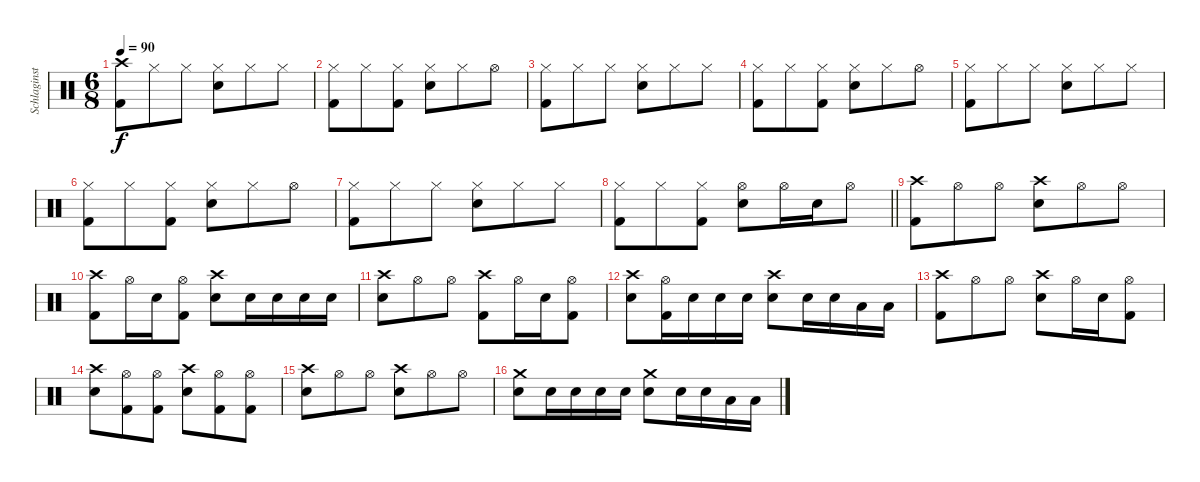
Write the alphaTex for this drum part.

\track ("Schlaginstrumente - Auswahl" "Schlaginst") {instrument percussion}
\staff {score}
\articulation defaults
\ts (6 8)
\tempo 90
\clef neutral
\ks c
("Crash high (hit)" "Kick (hit) 2").8{dy f} "Hi-Hat (closed)".8 "Hi-Hat (closed)".8 ("Hi-Hat (closed)" "Snare (hit) 2").8 "Hi-Hat (closed)".8 "Hi-Hat (closed)".8 |
("Hi-Hat (closed)" "Kick (hit) 2").8 "Hi-Hat (closed)".8 ("Hi-Hat (closed)" "Kick (hit) 2").8 ("Hi-Hat (closed)" "Snare (hit) 2").8 "Hi-Hat (closed)".8 "Hi-Hat (open)".8 |
("Hi-Hat (closed)" "Kick (hit) 2").8 "Hi-Hat (closed)".8 "Hi-Hat (closed)".8 ("Hi-Hat (closed)" "Snare (hit) 2").8 "Hi-Hat (closed)".8 "Hi-Hat (closed)".8 |
("Hi-Hat (closed)" "Kick (hit) 2").8 "Hi-Hat (closed)".8 ("Hi-Hat (closed)" "Kick (hit) 2").8 ("Hi-Hat (closed)" "Snare (hit) 2").8 "Hi-Hat (closed)".8 "Hi-Hat (open)".8 |
("Hi-Hat (closed)" "Kick (hit) 2").8 "Hi-Hat (closed)".8 "Hi-Hat (closed)".8 ("Hi-Hat (closed)" "Snare (hit) 2").8 "Hi-Hat (closed)".8 "Hi-Hat (closed)".8 |
("Hi-Hat (closed)" "Kick (hit) 2").8 "Hi-Hat (closed)".8 ("Hi-Hat (closed)" "Kick (hit) 2").8 ("Hi-Hat (closed)" "Snare (hit) 2").8 "Hi-Hat (closed)".8 "Hi-Hat (open)".8 |
("Hi-Hat (closed)" "Kick (hit) 2").8 "Hi-Hat (closed)".8 "Hi-Hat (closed)".8 ("Hi-Hat (closed)" "Snare (hit) 2").8 "Hi-Hat (closed)".8 "Hi-Hat (closed)".8 |
\barLineRight lightlight
("Hi-Hat (closed)" "Kick (hit) 2").8 "Hi-Hat (closed)".8 ("Hi-Hat (closed)" "Kick (hit) 2").8 ("Hi-Hat (open)" "Snare (hit) 2").8 "Hi-Hat (open)".16 "Snare (hit) 2".16 "Hi-Hat (open)".8 |
("Crash high (hit)" "Kick (hit) 2").8 "Hi-Hat (open)".8 "Hi-Hat (open)".8 ("Crash high (hit)" "Snare (hit) 2").8 "Hi-Hat (open)".8 "Hi-Hat (open)".8 |
("Crash high (hit)" "Kick (hit) 2").8 "Hi-Hat (open)".16 "Snare (hit) 2".16 ("Hi-Hat (open)" "Kick (hit) 2").8 ("Crash high (hit)" "Snare (hit) 2").8 "Snare (hit) 2".16 "Snare (hit) 2".16 "Snare (hit) 2".16 "Snare (hit) 2".16 |
("Crash high (hit)" "Snare (hit) 2").8 "Hi-Hat (open)".8 "Hi-Hat (open)".8 ("Crash high (hit)" "Kick (hit) 2").8 "Hi-Hat (open)".16 "Snare (hit) 2".16 ("Hi-Hat (open)" "Kick (hit) 2").8 |
("Crash high (hit)" "Snare (hit) 2").8 ("Hi-Hat (open)" "Kick (hit) 2").16 "Snare (hit) 2".16 "Snare (hit) 2".16 "Snare (hit) 2".16 ("Crash high (hit)" "Snare (hit) 2").8 "Snare (hit) 2".16 "Snare (hit) 2".16 "Low Tom (hit)".16 "Low Tom (hit)".16 |
("Crash high (hit)" "Kick (hit) 2").8 "Hi-Hat (open)".8 "Hi-Hat (open)".8 ("Crash high (hit)" "Snare (hit) 2").8 "Hi-Hat (open)".16 "Snare (hit) 2".16 ("Hi-Hat (open)" "Kick (hit) 2").8 |
("Crash high (hit)" "Snare (hit) 2").8 ("Hi-Hat (open)" "Kick (hit) 2").8 ("Hi-Hat (open)" "Kick (hit) 2").8 ("Crash high (hit)" "Snare (hit) 2").8 ("Hi-Hat (open)" "Kick (hit) 2").8 ("Hi-Hat (open)" "Kick (hit) 2").8 |
("Crash high (hit)" "Snare (hit) 2").8 "Hi-Hat (open)".8 "Hi-Hat (open)".8 ("Crash high (hit)" "Snare (hit) 2").8 "Hi-Hat (open)".8 "Hi-Hat (open)".8 |
("Crash medium (hit)" "Snare (hit) 2").8 "Snare (hit) 2".16 "Snare (hit) 2".16 "Snare (hit) 2".16 "Snare (hit) 2".16 ("Crash medium (hit)" "Snare (hit) 2").8 "Snare (hit) 2".16 "Snare (hit) 2".16 "Low Tom (hit)".16 "Low Tom (hit)".16
